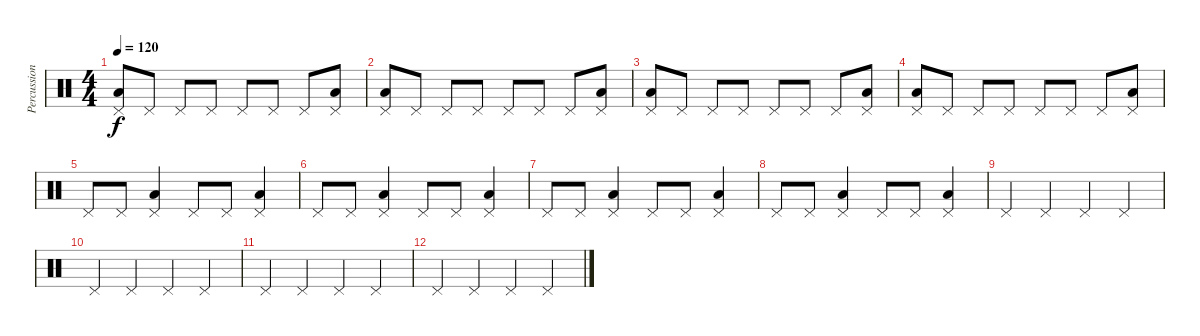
\track ("Percussion" "Percussion") {instrument percussion}
\staff {score}
\articulation defaults
\ts (4 4)
\tempo 120
\clef neutral
\ks c
("Pedal Hi-Hat (hit)" "Low Floor Tom (hit)").8{dy f} "Pedal Hi-Hat (hit)".8 "Pedal Hi-Hat (hit)".8 "Pedal Hi-Hat (hit)".8 "Pedal Hi-Hat (hit)".8 "Pedal Hi-Hat (hit)".8 "Pedal Hi-Hat (hit)".8 ("Pedal Hi-Hat (hit)" "Low Floor Tom (hit)").8 |
("Pedal Hi-Hat (hit)" "Low Floor Tom (hit)").8 "Pedal Hi-Hat (hit)".8 "Pedal Hi-Hat (hit)".8 "Pedal Hi-Hat (hit)".8 "Pedal Hi-Hat (hit)".8 "Pedal Hi-Hat (hit)".8 "Pedal Hi-Hat (hit)".8 ("Pedal Hi-Hat (hit)" "Low Floor Tom (hit)").8 |
("Pedal Hi-Hat (hit)" "Low Floor Tom (hit)").8 "Pedal Hi-Hat (hit)".8 "Pedal Hi-Hat (hit)".8 "Pedal Hi-Hat (hit)".8 "Pedal Hi-Hat (hit)".8 "Pedal Hi-Hat (hit)".8 "Pedal Hi-Hat (hit)".8 ("Pedal Hi-Hat (hit)" "Low Floor Tom (hit)").8 |
("Pedal Hi-Hat (hit)" "Low Floor Tom (hit)").8 "Pedal Hi-Hat (hit)".8 "Pedal Hi-Hat (hit)".8 "Pedal Hi-Hat (hit)".8 "Pedal Hi-Hat (hit)".8 "Pedal Hi-Hat (hit)".8 "Pedal Hi-Hat (hit)".8 ("Pedal Hi-Hat (hit)" "Low Floor Tom (hit)").8 |
"Pedal Hi-Hat (hit)".8 "Pedal Hi-Hat (hit)".8 ("Pedal Hi-Hat (hit)" "Low Tom (hit)").4 "Pedal Hi-Hat (hit)".8 "Pedal Hi-Hat (hit)".8 ("Pedal Hi-Hat (hit)" "Low Tom (hit)").4 |
"Pedal Hi-Hat (hit)".8 "Pedal Hi-Hat (hit)".8 ("Pedal Hi-Hat (hit)" "Low Tom (hit)").4 "Pedal Hi-Hat (hit)".8 "Pedal Hi-Hat (hit)".8 ("Pedal Hi-Hat (hit)" "Low Tom (hit)").4 |
"Pedal Hi-Hat (hit)".8 "Pedal Hi-Hat (hit)".8 ("Pedal Hi-Hat (hit)" "Low Tom (hit)").4 "Pedal Hi-Hat (hit)".8 "Pedal Hi-Hat (hit)".8 ("Pedal Hi-Hat (hit)" "Low Tom (hit)").4 |
"Pedal Hi-Hat (hit)".8 "Pedal Hi-Hat (hit)".8 ("Pedal Hi-Hat (hit)" "Low Tom (hit)").4 "Pedal Hi-Hat (hit)".8 "Pedal Hi-Hat (hit)".8 ("Pedal Hi-Hat (hit)" "Low Tom (hit)").4 |
"Pedal Hi-Hat (hit)".4 "Pedal Hi-Hat (hit)".4 "Pedal Hi-Hat (hit)".4 "Pedal Hi-Hat (hit)".4 |
"Pedal Hi-Hat (hit)".4 "Pedal Hi-Hat (hit)".4 "Pedal Hi-Hat (hit)".4 "Pedal Hi-Hat (hit)".4 |
"Pedal Hi-Hat (hit)".4 "Pedal Hi-Hat (hit)".4 "Pedal Hi-Hat (hit)".4 "Pedal Hi-Hat (hit)".4 |
"Pedal Hi-Hat (hit)".4 "Pedal Hi-Hat (hit)".4 "Pedal Hi-Hat (hit)".4 "Pedal Hi-Hat (hit)".4
